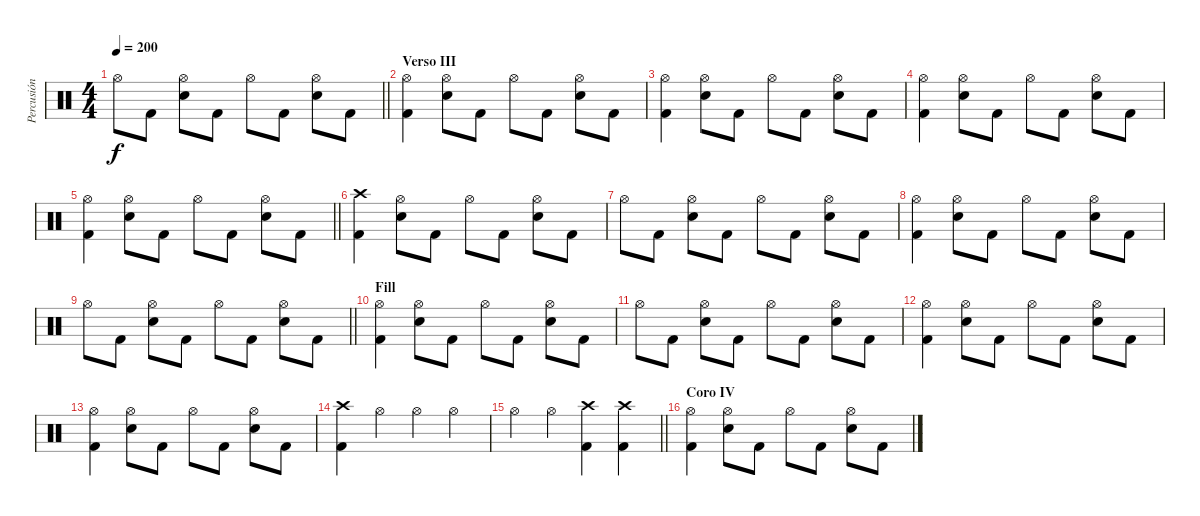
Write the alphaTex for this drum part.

\track ("Percusión" "Percusión") {instrument percussion}
\staff {score}
\articulation defaults
\ts (4 4)
\tempo 200
\clef neutral
\barLineRight lightlight
\ks c "Hi-Hat (open)".8{dy f} "Kick (hit) 2".8
("Hi-Hat (open)" "Electric Snare (hit)").8 "Kick (hit) 2".8 "Hi-Hat (open)".8 "Kick (hit) 2".8 ("Hi-Hat (open)" "Electric Snare (hit)").8 "Kick (hit) 2".8 |
\section ("" "Verso III")
("Hi-Hat (open)" "Kick (hit) 2").4 ("Hi-Hat (open)" "Electric Snare (hit)").8 "Kick (hit) 2".8 "Hi-Hat (open)".8 "Kick (hit) 2".8 ("Hi-Hat (open)" "Electric Snare (hit)").8 "Kick (hit) 2".8 |
("Hi-Hat (open)" "Kick (hit) 2").4 ("Hi-Hat (open)" "Electric Snare (hit)").8 "Kick (hit) 2".8 "Hi-Hat (open)".8 "Kick (hit) 2".8 ("Hi-Hat (open)" "Electric Snare (hit)").8 "Kick (hit) 2".8 |
("Hi-Hat (open)" "Kick (hit) 2").4 ("Hi-Hat (open)" "Electric Snare (hit)").8 "Kick (hit) 2".8 "Hi-Hat (open)".8 "Kick (hit) 2".8 ("Hi-Hat (open)" "Electric Snare (hit)").8 "Kick (hit) 2".8 |
\barLineRight lightlight
("Hi-Hat (open)" "Kick (hit) 2").4 ("Hi-Hat (open)" "Electric Snare (hit)").8 "Kick (hit) 2".8 "Hi-Hat (open)".8 "Kick (hit) 2".8 ("Hi-Hat (open)" "Electric Snare (hit)").8 "Kick (hit) 2".8 |
\section ("" "")
("Crash high (hit)" "Kick (hit) 2").4 ("Hi-Hat (open)" "Electric Snare (hit)").8 "Kick (hit) 2".8 "Hi-Hat (open)".8 "Kick (hit) 2".8 ("Hi-Hat (open)" "Electric Snare (hit)").8 "Kick (hit) 2".8 |
"Hi-Hat (open)".8 "Kick (hit) 2".8 ("Hi-Hat (open)" "Electric Snare (hit)").8 "Kick (hit) 2".8 "Hi-Hat (open)".8 "Kick (hit) 2".8 ("Hi-Hat (open)" "Electric Snare (hit)").8 "Kick (hit) 2".8 |
("Hi-Hat (open)" "Kick (hit) 2").4 ("Hi-Hat (open)" "Electric Snare (hit)").8 "Kick (hit) 2".8 "Hi-Hat (open)".8 "Kick (hit) 2".8 ("Hi-Hat (open)" "Electric Snare (hit)").8 "Kick (hit) 2".8 |
\barLineRight lightlight "Hi-Hat (open)".8 "Kick (hit) 2".8
("Hi-Hat (open)" "Electric Snare (hit)").8 "Kick (hit) 2".8 "Hi-Hat (open)".8 "Kick (hit) 2".8 ("Hi-Hat (open)" "Electric Snare (hit)").8 "Kick (hit) 2".8 |
\section ("" "Fill")
("Hi-Hat (open)" "Kick (hit) 2").4 ("Hi-Hat (open)" "Electric Snare (hit)").8 "Kick (hit) 2".8 "Hi-Hat (open)".8 "Kick (hit) 2".8 ("Hi-Hat (open)" "Electric Snare (hit)").8 "Kick (hit) 2".8 |
"Hi-Hat (open)".8 "Kick (hit) 2".8 ("Hi-Hat (open)" "Electric Snare (hit)").8 "Kick (hit) 2".8 "Hi-Hat (open)".8 "Kick (hit) 2".8 ("Hi-Hat (open)" "Electric Snare (hit)").8 "Kick (hit) 2".8 |
("Hi-Hat (open)" "Kick (hit) 2").4 ("Hi-Hat (open)" "Electric Snare (hit)").8 "Kick (hit) 2".8 "Hi-Hat (open)".8 "Kick (hit) 2".8 ("Hi-Hat (open)" "Electric Snare (hit)").8 "Kick (hit) 2".8 |
("Hi-Hat (open)" "Kick (hit) 2").4 ("Hi-Hat (open)" "Electric Snare (hit)").8 "Kick (hit) 2".8 "Hi-Hat (open)".8 "Kick (hit) 2".8 ("Hi-Hat (open)" "Electric Snare (hit)").8 "Kick (hit) 2".8 |
("Crash high (hit)" "Kick (hit) 2").4 "Hi-Hat (open)".4 "Hi-Hat (open)".4 "Hi-Hat (open)".4 |
\barLineRight lightlight "Hi-Hat (open)".4 "Hi-Hat (open)".4
("Crash high (hit)" "Kick (hit) 2").4 ("Crash high (hit)" "Kick (hit) 2").4 |
\section ("" "Coro IV")
("Hi-Hat (open)" "Kick (hit) 2").4 ("Hi-Hat (open)" "Electric Snare (hit)").8 "Kick (hit) 2".8 "Hi-Hat (open)".8 "Kick (hit) 2".8 ("Hi-Hat (open)" "Electric Snare (hit)").8 "Kick (hit) 2".8
